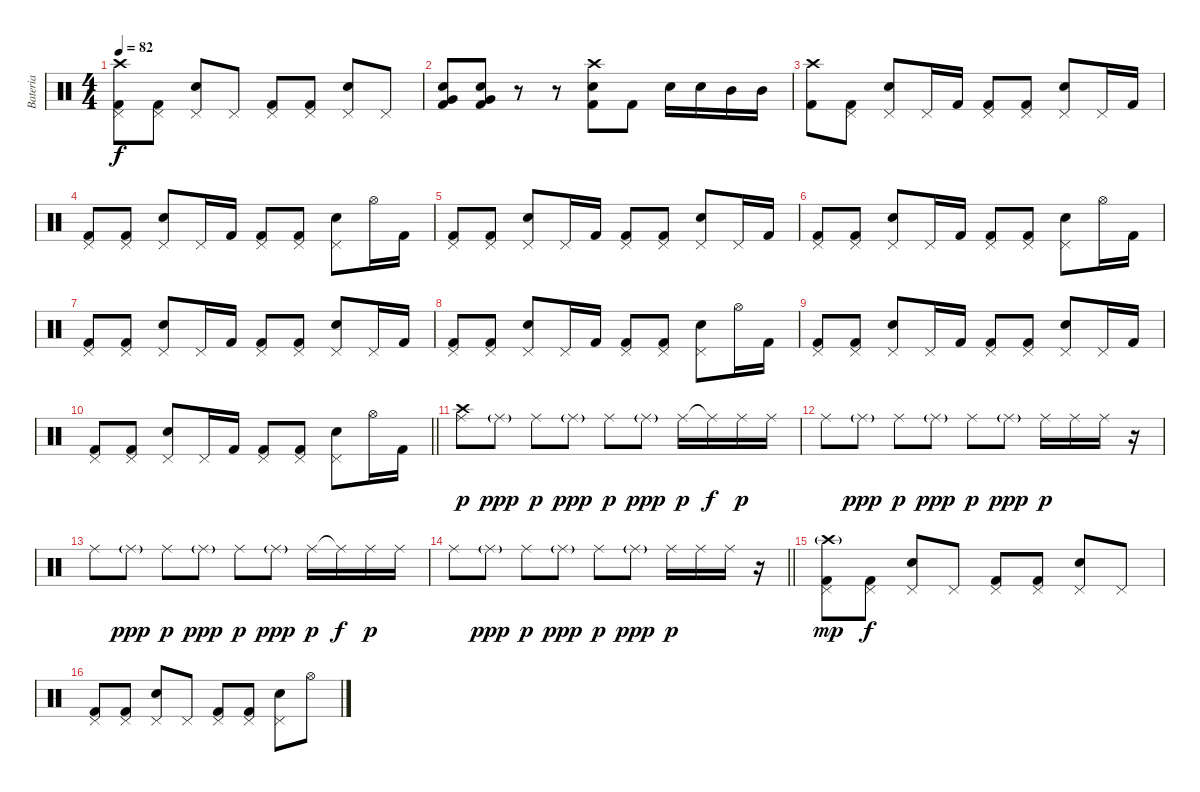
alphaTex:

\track ("Bateria" "Bateria") {instrument percussion}
\staff {score}
\articulation defaults
\ts (4 4)
\tempo 82
\clef neutral
\ks c
("Crash high (hit)" "Pedal Hi-Hat (hit)" "Kick (hit) 2").8{dy f} ("Pedal Hi-Hat (hit)" "Kick (hit) 2").8 ("Pedal Hi-Hat (hit)" "Snare (hit) 2").8 "Pedal Hi-Hat (hit)".8 ("Pedal Hi-Hat (hit)" "Kick (hit) 2").8 ("Pedal Hi-Hat (hit)" "Kick (hit) 2").8 ("Pedal Hi-Hat (hit)" "Snare (hit) 2").8 "Pedal Hi-Hat (hit)".8 |
("Very Low Tom (hit)" "Snare (hit) 2" "Kick (hit) 2").8 ("Very Low Tom (hit)" "Snare (hit) 2" "Kick (hit) 2").8 r.8 r.8 ("Crash high (hit)" "Snare (hit) 2" "Kick (hit) 2").8 "Kick (hit) 2".8 "Snare (hit) 2".16 "Snare (hit) 2".16 "Mid Tom (hit)".16 "Mid Tom (hit)".16 |
("Crash high (hit)" "Kick (hit) 2").8 ("Pedal Hi-Hat (hit)" "Kick (hit) 2").8 ("Pedal Hi-Hat (hit)" "Snare (hit) 2").8 "Pedal Hi-Hat (hit)".16 "Kick (hit) 2".16 ("Pedal Hi-Hat (hit)" "Kick (hit) 2").8 ("Pedal Hi-Hat (hit)" "Kick (hit) 2").8 ("Pedal Hi-Hat (hit)" "Snare (hit) 2").8 "Pedal Hi-Hat (hit)".16 "Kick (hit) 2".16 |
("Pedal Hi-Hat (hit)" "Kick (hit) 2").8 ("Pedal Hi-Hat (hit)" "Kick (hit) 2").8 ("Pedal Hi-Hat (hit)" "Snare (hit) 2").8 "Pedal Hi-Hat (hit)".16 "Kick (hit) 2".16 ("Pedal Hi-Hat (hit)" "Kick (hit) 2").8 ("Pedal Hi-Hat (hit)" "Kick (hit) 2").8 ("Pedal Hi-Hat (hit)" "Snare (hit) 2").8 "Hi-Hat (open)".16 "Kick (hit) 2".16 |
("Pedal Hi-Hat (hit)" "Kick (hit) 2").8 ("Pedal Hi-Hat (hit)" "Kick (hit) 2").8 ("Pedal Hi-Hat (hit)" "Snare (hit) 2").8 "Pedal Hi-Hat (hit)".16 "Kick (hit) 2".16 ("Pedal Hi-Hat (hit)" "Kick (hit) 2").8 ("Pedal Hi-Hat (hit)" "Kick (hit) 2").8 ("Pedal Hi-Hat (hit)" "Snare (hit) 2").8 "Pedal Hi-Hat (hit)".16 "Kick (hit) 2".16 |
("Pedal Hi-Hat (hit)" "Kick (hit) 2").8 ("Pedal Hi-Hat (hit)" "Kick (hit) 2").8 ("Pedal Hi-Hat (hit)" "Snare (hit) 2").8 "Pedal Hi-Hat (hit)".16 "Kick (hit) 2".16 ("Pedal Hi-Hat (hit)" "Kick (hit) 2").8 ("Pedal Hi-Hat (hit)" "Kick (hit) 2").8 ("Pedal Hi-Hat (hit)" "Snare (hit) 2").8 "Hi-Hat (open)".16 "Kick (hit) 2".16 |
("Pedal Hi-Hat (hit)" "Kick (hit) 2").8 ("Pedal Hi-Hat (hit)" "Kick (hit) 2").8 ("Pedal Hi-Hat (hit)" "Snare (hit) 2").8 "Pedal Hi-Hat (hit)".16 "Kick (hit) 2".16 ("Pedal Hi-Hat (hit)" "Kick (hit) 2").8 ("Pedal Hi-Hat (hit)" "Kick (hit) 2").8 ("Pedal Hi-Hat (hit)" "Snare (hit) 2").8 "Pedal Hi-Hat (hit)".16 "Kick (hit) 2".16 |
("Pedal Hi-Hat (hit)" "Kick (hit) 2").8 ("Pedal Hi-Hat (hit)" "Kick (hit) 2").8 ("Pedal Hi-Hat (hit)" "Snare (hit) 2").8 "Pedal Hi-Hat (hit)".16 "Kick (hit) 2".16 ("Pedal Hi-Hat (hit)" "Kick (hit) 2").8 ("Pedal Hi-Hat (hit)" "Kick (hit) 2").8 ("Pedal Hi-Hat (hit)" "Snare (hit) 2").8 "Hi-Hat (open)".16 "Kick (hit) 2".16 |
("Pedal Hi-Hat (hit)" "Kick (hit) 2").8 ("Pedal Hi-Hat (hit)" "Kick (hit) 2").8 ("Pedal Hi-Hat (hit)" "Snare (hit) 2").8 "Pedal Hi-Hat (hit)".16 "Kick (hit) 2".16 ("Pedal Hi-Hat (hit)" "Kick (hit) 2").8 ("Pedal Hi-Hat (hit)" "Kick (hit) 2").8 ("Pedal Hi-Hat (hit)" "Snare (hit) 2").8 "Pedal Hi-Hat (hit)".16 "Kick (hit) 2".16 |
\barLineRight lightlight
("Pedal Hi-Hat (hit)" "Kick (hit) 2").8 ("Pedal Hi-Hat (hit)" "Kick (hit) 2").8 ("Pedal Hi-Hat (hit)" "Snare (hit) 2").8 "Pedal Hi-Hat (hit)".16 "Kick (hit) 2".16 ("Pedal Hi-Hat (hit)" "Kick (hit) 2").8 ("Pedal Hi-Hat (hit)" "Kick (hit) 2").8 ("Pedal Hi-Hat (hit)" "Snare (hit) 2").8 "Hi-Hat (open)".16 "Kick (hit) 2".16 |
("Crash high (hit)" "Ride (middle)").8{dy p} "Ride (middle)"{g}.8{dy ppp} "Ride (middle)".8{dy p} "Ride (middle)"{g}.8{dy ppp} "Ride (middle)".8{dy p} "Ride (middle)"{g}.8{dy ppp} "Ride (middle)".16{dy p} "Ride (middle)"{t}.16{dy f} "Ride (middle)".16{dy p} "Ride (middle)".16 |
"Ride (middle)".8 "Ride (middle)"{g}.8{dy ppp} "Ride (middle)".8{dy p} "Ride (middle)"{g}.8{dy ppp} "Ride (middle)".8{dy p} "Ride (middle)"{g}.8{dy ppp} "Ride (middle)".16{dy p} "Ride (middle)".16 "Ride (middle)".16 r.16 |
"Ride (middle)".8 "Ride (middle)"{g}.8{dy ppp} "Ride (middle)".8{dy p} "Ride (middle)"{g}.8{dy ppp} "Ride (middle)".8{dy p} "Ride (middle)"{g}.8{dy ppp} "Ride (middle)".16{dy p} "Ride (middle)"{t}.16{dy f} "Ride (middle)".16{dy p} "Ride (middle)".16 |
\barLineRight lightlight "Ride (middle)".8 "Ride (middle)"{g}.8{dy ppp} "Ride (middle)".8{dy p} "Ride (middle)"{g}.8{dy ppp} "Ride (middle)".8{dy p} "Ride (middle)"{g}.8{dy ppp} "Ride (middle)".16{dy p} "Ride (middle)".16 "Ride (middle)".16
r.16 |
("Crash high (hit)"{g} "Pedal Hi-Hat (hit)" "Kick (hit) 2").8{dy mp} ("Pedal Hi-Hat (hit)" "Kick (hit) 2").8{dy f} ("Pedal Hi-Hat (hit)" "Snare (hit) 2").8 "Pedal Hi-Hat (hit)".8 ("Pedal Hi-Hat (hit)" "Kick (hit) 2").8 ("Pedal Hi-Hat (hit)" "Kick (hit) 2").8 ("Pedal Hi-Hat (hit)" "Snare (hit) 2").8 "Pedal Hi-Hat (hit)".8 |
("Pedal Hi-Hat (hit)" "Kick (hit) 2").8 ("Pedal Hi-Hat (hit)" "Kick (hit) 2").8 ("Pedal Hi-Hat (hit)" "Snare (hit) 2").8 "Pedal Hi-Hat (hit)".8 ("Pedal Hi-Hat (hit)" "Kick (hit) 2").8 ("Pedal Hi-Hat (hit)" "Kick (hit) 2").8 ("Pedal Hi-Hat (hit)" "Snare (hit) 2").8 "Hi-Hat (open)".8
